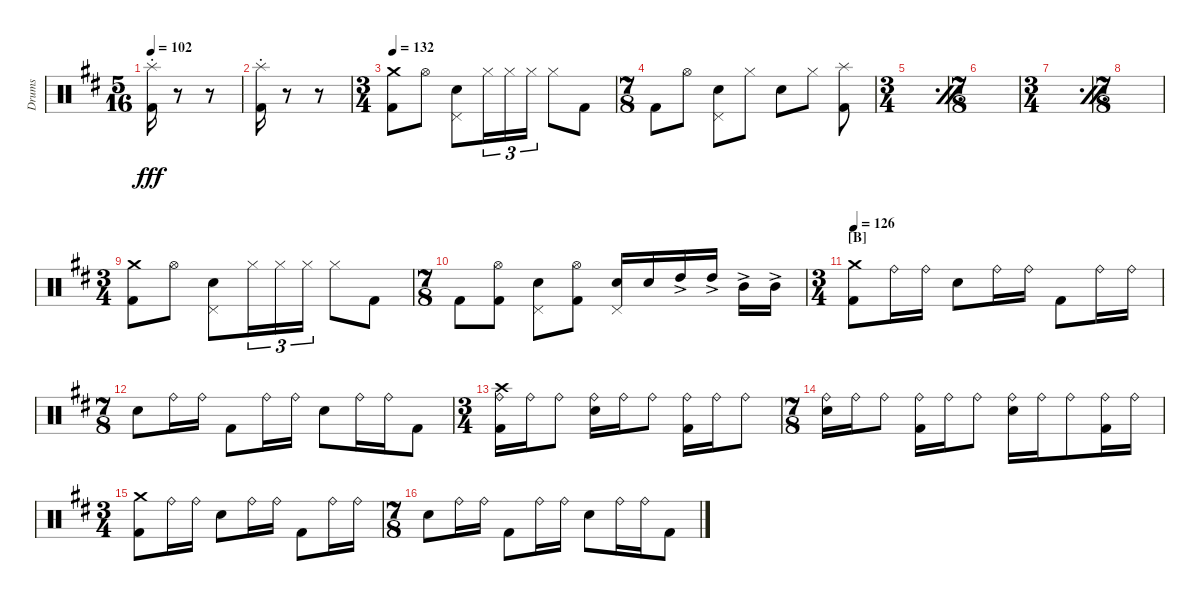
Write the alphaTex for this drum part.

\defaultSystemsLayout 4
\bracketExtendMode groupsimilarinstruments
\otherSystemsTrackNameOrientation horizontal
\track ("Drumkit" "Drums") {multiBarRest instrument percussion}
\staff {score}
\articulation defaults
\ts (5 16)
\beaming (16 6 5 2)
\tempo 102
\clef neutral
\ks d
("Kick (hit) 2"{acc forcenatural} "Splash (hit)"{st acc forcenatural}).16{dy fff} r.8 r.8 |
("Kick (hit) 2"{acc forcenatural} "Splash (hit)"{st acc forcenatural}).16 r.8 r.8 |
\ts (3 4)
\beaming (8 2 2 2)
\tempo 132
("Crash medium (hit)"{acc forcenatural} "Kick (hit) 2"{acc forcenatural}).8{beam merge} "Hi-Hat (open)"{acc forcenatural}.8{beam split} ("Snare (hit) 2"{acc forcenatural} "Pedal Hi-Hat (hit)"{acc forcenatural}).8{beam merge} "Hi-Hat (closed)"{acc forcenatural}.16{tu (3 2) beam merge} "Hi-Hat (closed)"{acc forcenatural}.16{tu (3 2) beam merge} "Hi-Hat (closed)"{acc forcenatural}.16{tu (3 2) beam split} "Hi-Hat (closed)"{acc forcenatural}.8{beam merge} "Kick (hit) 2"{acc forcenatural}.8 |
\ts (7 8)
\beaming (8 2 2 2)
"Kick (hit) 2"{acc forcenatural}.8 "Hi-Hat (open)"{acc forcenatural}.8 ("Snare (hit) 2"{acc forcenatural} "Pedal Hi-Hat (hit)"{acc forcenatural}).8 "Hi-Hat (closed)"{acc forcenatural}.8 "Snare (hit) 2"{acc forcenatural}.8 "Hi-Hat (closed)"{acc forcenatural}.8 ("Kick (hit) 2"{acc forcenatural} "Splash (hit)"{acc forcenatural}).8 |
\ts (3 4)
\beaming (8 2 2 2)
\simile firstofdouble
|
\ts (7 8)
\beaming (8 2 2 2)
\simile secondofdouble
|
\ts (3 4)
\beaming (8 2 2 2)
\simile firstofdouble
|
\ts (7 8)
\beaming (8 2 2 2)
\simile secondofdouble
|
\ts (3 4)
\beaming (8 2 2 2)
\simile none
("Crash medium (hit)"{acc forcenatural} "Kick (hit) 2"{acc forcenatural}).8 "Hi-Hat (open)"{acc forcenatural}.8 ("Snare (hit) 2"{acc forcenatural} "Pedal Hi-Hat (hit)"{acc forcenatural}).8{beam merge} "Hi-Hat (closed)"{acc forcenatural}.16{tu (3 2)} "Hi-Hat (closed)"{acc forcenatural}.16{tu (3 2)} "Hi-Hat (closed)"{acc forcenatural}.16{tu (3 2) beam split} "Hi-Hat (closed)"{acc forcenatural}.8 "Kick (hit) 2"{acc forcenatural}.8 |
\ts (7 8)
\beaming (8 2 2 2)
"Kick (hit) 2"{acc forcenatural}.8 ("Hi-Hat (open)"{acc forcenatural} "Kick (hit) 2"{acc forcenatural}).8 ("Snare (hit) 2"{acc forcenatural} "Pedal Hi-Hat (hit)"{acc forcenatural}).8 ("Hi-Hat (open)"{acc forcenatural} "Kick (hit) 2"{acc forcenatural}).8 ("Snare (hit) 2"{acc forcenatural} "Pedal Hi-Hat (hit)"{acc forcenatural}).16 "Snare (hit) 2"{acc forcenatural}.16 "High Tom (hit)"{ac acc forcenatural}.16 "High Tom (hit)"{ac acc forcenatural}.16 "Mid Tom (hit)"{ac acc forcenatural}.16{beam merge} "Mid Tom (hit)"{ac acc forcenatural}.16 |
\ts (3 4)
\beaming (8 2 2 2)
\section ("B" "")
\tempo 126
("Crash medium (hit)"{acc forcenatural} "Kick (hit) 2"{acc forcenatural}).8 "Ride (bell)"{acc forcenatural}.16 "Ride (bell)"{acc forcenatural}.16 "Snare (hit) 2"{acc forcenatural}.8 "Ride (bell)"{acc forcenatural}.16 "Ride (bell)"{acc forcenatural}.16 "Kick (hit) 2"{acc forcenatural}.8 "Ride (bell)"{acc forcenatural}.16 "Ride (bell)"{acc forcenatural}.16 |
\ts (7 8)
\beaming (8 2 2 3)
"Snare (hit) 2"{acc forcenatural}.8 "Ride (bell)"{acc forcenatural}.16 "Ride (bell)"{acc forcenatural}.16 "Kick (hit) 2"{acc forcenatural}.8 "Ride (bell)"{acc forcenatural}.16 "Ride (bell)"{acc forcenatural}.16 "Snare (hit) 2"{acc forcenatural}.8 "Ride (bell)"{acc forcenatural}.16 "Ride (bell)"{acc forcenatural}.16 "Kick (hit) 2"{acc forcenatural}.8 |
\ts (3 4)
\beaming (8 2 2 3)
("Kick (hit) 2"{acc forcenatural} "Ride (bell)"{acc forcenatural} "Crash high (hit)"{acc forcenatural}).16 "Ride (bell)"{acc forcenatural}.16 "Ride (bell)"{acc forcenatural}.8 ("Ride (bell)"{acc forcenatural} "Snare (hit) 2"{acc forcenatural}).16 "Ride (bell)"{acc forcenatural}.16 "Ride (bell)"{acc forcenatural}.8 ("Kick (hit) 2"{acc forcenatural} "Ride (bell)"{acc forcenatural}).16 "Ride (bell)"{acc forcenatural}.16 "Ride (bell)"{acc forcenatural}.8 |
\ts (7 8)
\beaming (8 2 2 3)
("Ride (bell)"{acc forcenatural} "Snare (hit) 2"{acc forcenatural}).16 "Ride (bell)"{acc forcenatural}.16 "Ride (bell)"{acc forcenatural}.8 ("Kick (hit) 2"{acc forcenatural} "Ride (bell)"{acc forcenatural}).16 "Ride (bell)"{acc forcenatural}.16 "Ride (bell)"{acc forcenatural}.8 ("Ride (bell)"{acc forcenatural} "Snare (hit) 2"{acc forcenatural}).16 "Ride (bell)"{acc forcenatural}.16 "Ride (bell)"{acc forcenatural}.8 ("Ride (bell)"{acc forcenatural} "Kick (hit) 2"{acc forcenatural}).16{beam merge} "Ride (bell)"{acc forcenatural}.16 |
\ts (3 4)
\beaming (8 2 2 3)
("Crash medium (hit)"{acc forcenatural} "Kick (hit) 2"{acc forcenatural}).8 "Ride (bell)"{acc forcenatural}.16 "Ride (bell)"{acc forcenatural}.16 "Snare (hit) 2"{acc forcenatural}.8 "Ride (bell)"{acc forcenatural}.16 "Ride (bell)"{acc forcenatural}.16 "Kick (hit) 2"{acc forcenatural}.8 "Ride (bell)"{acc forcenatural}.16 "Ride (bell)"{acc forcenatural}.16 |
\ts (7 8)
\beaming (8 2 2 3)
"Snare (hit) 2"{acc forcenatural}.8 "Ride (bell)"{acc forcenatural}.16 "Ride (bell)"{acc forcenatural}.16 "Kick (hit) 2"{acc forcenatural}.8 "Ride (bell)"{acc forcenatural}.16 "Ride (bell)"{acc forcenatural}.16 "Snare (hit) 2"{acc forcenatural}.8 "Ride (bell)"{acc forcenatural}.16 "Ride (bell)"{acc forcenatural}.16 "Kick (hit) 2"{acc forcenatural}.8
